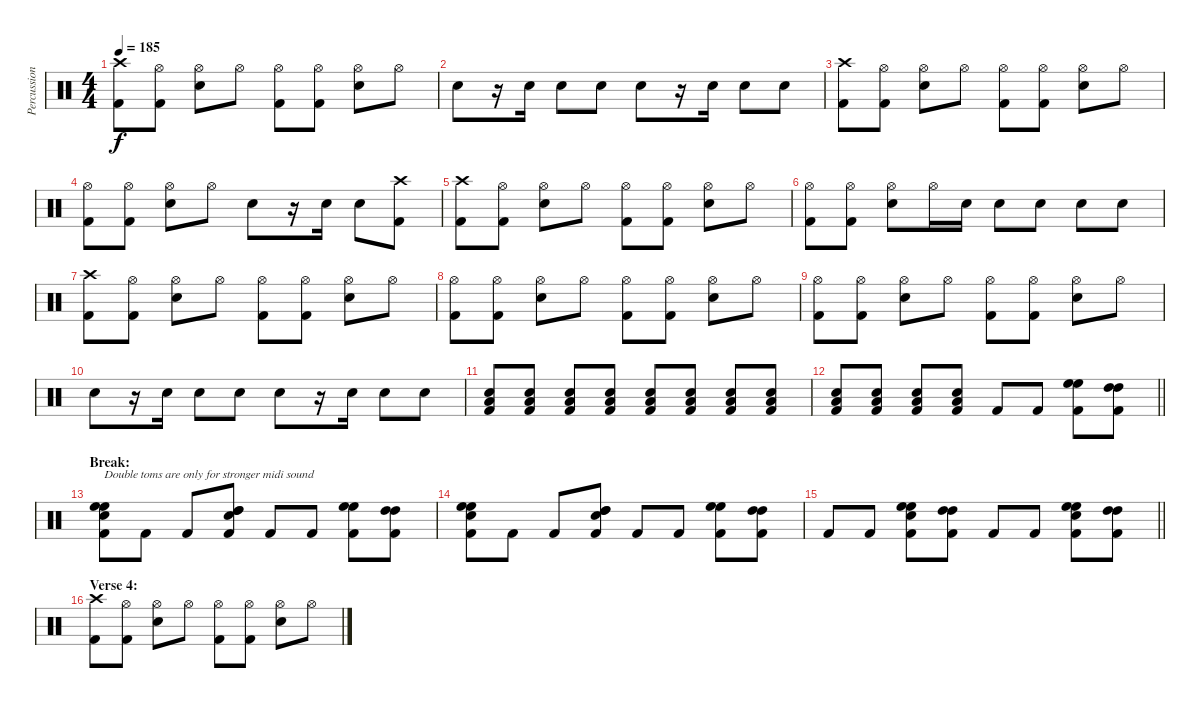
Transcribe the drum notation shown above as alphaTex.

\track ("Percussion" "Percussion") {instrument percussion}
\staff {score}
\articulation defaults
\ts (4 4)
\tempo 185
\clef neutral
\ks c
("Crash high (hit)" "Kick (hit) 2").8{dy f} ("Hi-Hat (open)" "Kick (hit) 2").8 ("Hi-Hat (open)" "Snare (hit) 2").8 "Hi-Hat (open)".8 ("Hi-Hat (open)" "Kick (hit) 2").8 ("Hi-Hat (open)" "Kick (hit) 2").8 ("Hi-Hat (open)" "Snare (hit) 2").8 "Hi-Hat (open)".8 |
"Snare (hit) 2".8 r.16 "Snare (hit) 2".16 "Snare (hit) 2".8 "Snare (hit) 2".8 "Snare (hit) 2".8 r.16 "Snare (hit) 2".16 "Snare (hit) 2".8 "Snare (hit) 2".8 |
("Crash high (hit)" "Kick (hit) 2").8 ("Hi-Hat (open)" "Kick (hit) 2").8 ("Hi-Hat (open)" "Snare (hit) 2").8 "Hi-Hat (open)".8 ("Hi-Hat (open)" "Kick (hit) 2").8 ("Hi-Hat (open)" "Kick (hit) 2").8 ("Hi-Hat (open)" "Snare (hit) 2").8 "Hi-Hat (open)".8 |
("Hi-Hat (open)" "Kick (hit) 2").8 ("Hi-Hat (open)" "Kick (hit) 2").8 ("Hi-Hat (open)" "Snare (hit) 2").8 "Hi-Hat (open)".8 "Snare (hit) 2".8 r.16 "Snare (hit) 2".16 "Snare (hit) 2".8 ("Crash high (hit)" "Kick (hit) 2").8 |
("Crash high (hit)" "Kick (hit) 2").8 ("Hi-Hat (open)" "Kick (hit) 2").8 ("Hi-Hat (open)" "Snare (hit) 2").8 "Hi-Hat (open)".8 ("Hi-Hat (open)" "Kick (hit) 2").8 ("Hi-Hat (open)" "Kick (hit) 2").8 ("Hi-Hat (open)" "Snare (hit) 2").8 "Hi-Hat (open)".8 |
("Hi-Hat (open)" "Kick (hit) 2").8 ("Hi-Hat (open)" "Kick (hit) 2").8 ("Hi-Hat (open)" "Snare (hit) 2").8 "Hi-Hat (open)".16 "Snare (hit) 2".16 "Snare (hit) 2".8 "Snare (hit) 2".8 "Snare (hit) 2".8 "Snare (hit) 2".8 |
("Crash high (hit)" "Kick (hit) 2").8 ("Hi-Hat (open)" "Kick (hit) 2").8 ("Hi-Hat (open)" "Snare (hit) 2").8 "Hi-Hat (open)".8 ("Hi-Hat (open)" "Kick (hit) 2").8 ("Hi-Hat (open)" "Kick (hit) 2").8 ("Hi-Hat (open)" "Snare (hit) 2").8 "Hi-Hat (open)".8 |
("Hi-Hat (open)" "Kick (hit) 2").8 ("Hi-Hat (open)" "Kick (hit) 2").8 ("Hi-Hat (open)" "Snare (hit) 2").8 "Hi-Hat (open)".8 ("Hi-Hat (open)" "Kick (hit) 2").8 ("Hi-Hat (open)" "Kick (hit) 2").8 ("Hi-Hat (open)" "Snare (hit) 2").8 "Hi-Hat (open)".8 |
("Hi-Hat (open)" "Kick (hit) 2").8 ("Hi-Hat (open)" "Kick (hit) 2").8 ("Hi-Hat (open)" "Snare (hit) 2").8 "Hi-Hat (open)".8 ("Hi-Hat (open)" "Kick (hit) 2").8 ("Hi-Hat (open)" "Kick (hit) 2").8 ("Hi-Hat (open)" "Snare (hit) 2").8 "Hi-Hat (open)".8 |
"Snare (hit) 2".8 r.16 "Snare (hit) 2".16 "Snare (hit) 2".8 "Snare (hit) 2".8 "Snare (hit) 2".8 r.16 "Snare (hit) 2".16 "Snare (hit) 2".8 "Snare (hit) 2".8 |
("Low Tom (hit)" "Snare (hit) 2" "Kick (hit) 2").8 ("Low Tom (hit)" "Snare (hit) 2" "Kick (hit) 2").8 ("Low Tom (hit)" "Snare (hit) 2" "Kick (hit) 2").8 ("Low Tom (hit)" "Snare (hit) 2" "Kick (hit) 2").8 ("Low Tom (hit)" "Snare (hit) 2" "Kick (hit) 2").8 ("Low Tom (hit)" "Snare (hit) 2" "Kick (hit) 2").8 ("Low Tom (hit)" "Snare (hit) 2" "Kick (hit) 2").8 ("Low Tom (hit)" "Snare (hit) 2" "Kick (hit) 2").8 |
\barLineRight lightlight
("Low Tom (hit)" "Snare (hit) 2" "Kick (hit) 2").8 ("Low Tom (hit)" "Snare (hit) 2" "Kick (hit) 2").8 ("Low Tom (hit)" "Snare (hit) 2" "Kick (hit) 2").8 ("Low Tom (hit)" "Snare (hit) 2" "Kick (hit) 2").8 "Kick (hit) 2".8 "Kick (hit) 2".8 ("High Floor Tom (hit)" "High Floor Tom (hit)" "Kick (hit) 2").8 ("High Tom (hit)" "High Tom (hit)" "Kick (hit) 2").8 |
\section ("" "Break:")
("High Floor Tom (hit)" "High Floor Tom (hit)" "Snare (hit) 2" "Kick (hit) 2").8{txt "Double toms are only for stronger midi sound"} "Kick (hit) 2".8 "Kick (hit) 2".8 ("High Tom (hit)" "High Tom (hit)" "Snare (hit) 2" "Kick (hit) 2").8 "Kick (hit) 2".8 "Kick (hit) 2".8 ("High Floor Tom (hit)" "High Floor Tom (hit)" "Kick (hit) 2").8 ("High Tom (hit)" "High Tom (hit)" "Kick (hit) 2").8 |
("High Floor Tom (hit)" "High Floor Tom (hit)" "Snare (hit) 2" "Kick (hit) 2").8 "Kick (hit) 2".8 "Kick (hit) 2".8 ("High Tom (hit)" "High Tom (hit)" "Snare (hit) 2" "Kick (hit) 2").8 "Kick (hit) 2".8 "Kick (hit) 2".8 ("High Floor Tom (hit)" "High Floor Tom (hit)" "Kick (hit) 2").8 ("High Tom (hit)" "High Tom (hit)" "Kick (hit) 2").8 |
\barLineRight lightlight "Kick (hit) 2".8 "Kick (hit) 2".8
("High Floor Tom (hit)" "High Floor Tom (hit)" "Snare (hit) 2" "Kick (hit) 2").8 ("High Tom (hit)" "High Tom (hit)" "Kick (hit) 2").8 "Kick (hit) 2".8 "Kick (hit) 2".8 ("High Floor Tom (hit)" "High Floor Tom (hit)" "Snare (hit) 2" "Kick (hit) 2").8 ("High Tom (hit)" "High Tom (hit)" "Kick (hit) 2").8 |
\section ("" "Verse 4:")
("Crash high (hit)" "Kick (hit) 2").8 ("Hi-Hat (open)" "Kick (hit) 2").8 ("Hi-Hat (open)" "Snare (hit) 2").8 "Hi-Hat (open)".8 ("Hi-Hat (open)" "Kick (hit) 2").8 ("Hi-Hat (open)" "Kick (hit) 2").8 ("Hi-Hat (open)" "Snare (hit) 2").8 "Hi-Hat (open)".8
